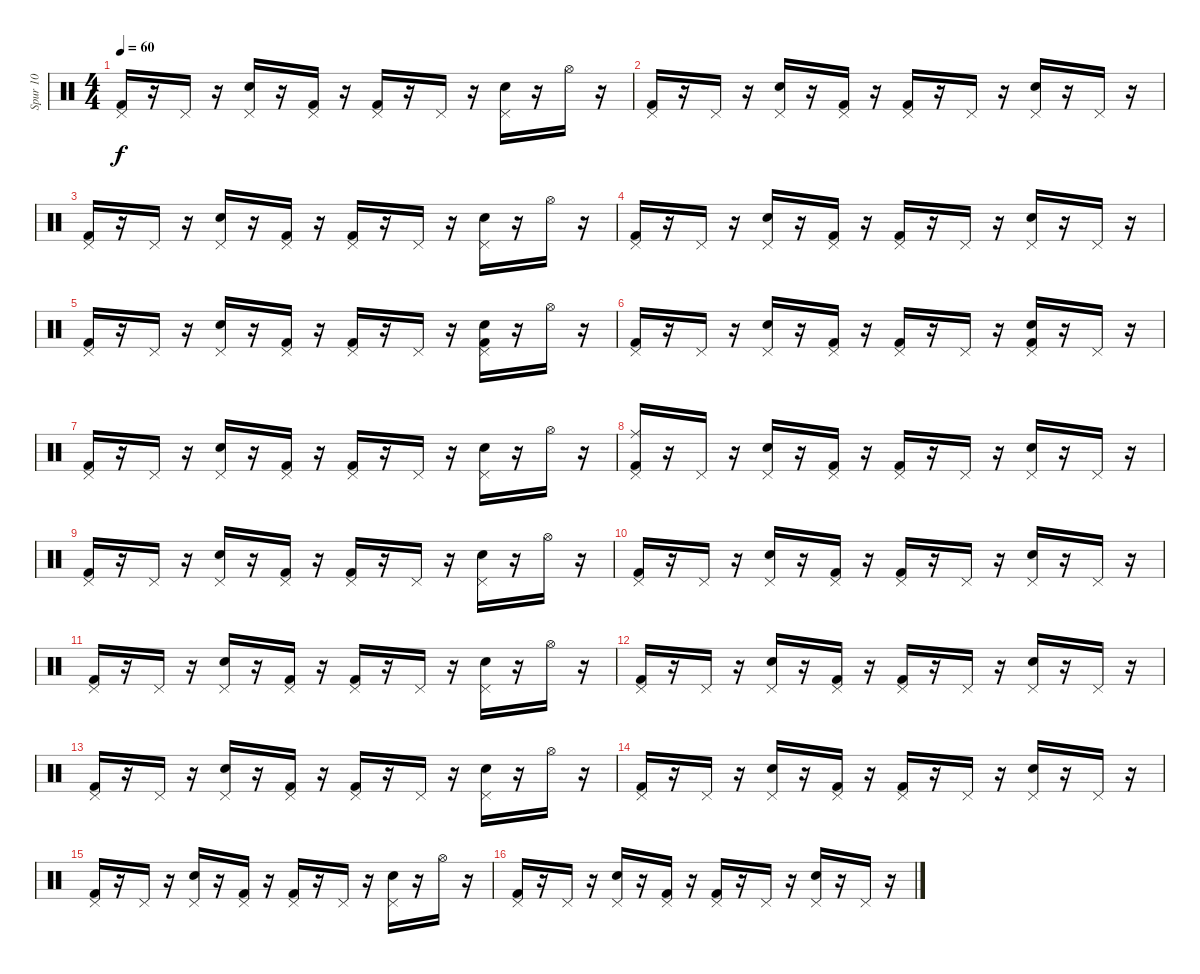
\track ("Spur 10" "Spur 10") {instrument percussion}
\staff {score}
\articulation defaults
\ts (4 4)
\tempo 60
\clef neutral
\ks c
("Kick (hit) 2" "Pedal Hi-Hat (hit)").16{dy f} r.16 "Pedal Hi-Hat (hit)".16 r.16 ("Snare (hit) 2" "Pedal Hi-Hat (hit)").16 r.16 ("Pedal Hi-Hat (hit)" "Kick (hit) 2").16 r.16 ("Pedal Hi-Hat (hit)" "Kick (hit) 2").16 r.16 "Pedal Hi-Hat (hit)".16 r.16 ("Snare (hit) 2" "Pedal Hi-Hat (hit)").16 r.16 "Hi-Hat (open)".16 r.16 |
("Pedal Hi-Hat (hit)" "Kick (hit) 2").16 r.16 "Pedal Hi-Hat (hit)".16 r.16 ("Pedal Hi-Hat (hit)" "Snare (hit) 2").16 r.16 ("Kick (hit) 2" "Pedal Hi-Hat (hit)").16 r.16 ("Kick (hit) 2" "Pedal Hi-Hat (hit)").16 r.16 "Pedal Hi-Hat (hit)".16 r.16 ("Snare (hit) 2" "Pedal Hi-Hat (hit)").16 r.16 "Pedal Hi-Hat (hit)".16 r.16 |
("Kick (hit) 2" "Pedal Hi-Hat (hit)").16 r.16 "Pedal Hi-Hat (hit)".16 r.16 ("Snare (hit) 2" "Pedal Hi-Hat (hit)").16 r.16 ("Pedal Hi-Hat (hit)" "Kick (hit) 2").16 r.16 ("Kick (hit) 2" "Pedal Hi-Hat (hit)").16 r.16 "Pedal Hi-Hat (hit)".16 r.16 ("Snare (hit) 2" "Pedal Hi-Hat (hit)").16 r.16 "Hi-Hat (open)".16 r.16 |
("Pedal Hi-Hat (hit)" "Kick (hit) 2").16 r.16 "Pedal Hi-Hat (hit)".16 r.16 ("Pedal Hi-Hat (hit)" "Snare (hit) 2").16 r.16 ("Kick (hit) 2" "Pedal Hi-Hat (hit)").16 r.16 ("Pedal Hi-Hat (hit)" "Kick (hit) 2").16 r.16 "Pedal Hi-Hat (hit)".16 r.16 ("Pedal Hi-Hat (hit)" "Snare (hit) 2").16 r.16 "Pedal Hi-Hat (hit)".16 r.16 |
("Pedal Hi-Hat (hit)" "Kick (hit) 2").16 r.16 "Pedal Hi-Hat (hit)".16 r.16 ("Snare (hit) 2" "Pedal Hi-Hat (hit)").16 r.16 ("Kick (hit) 2" "Pedal Hi-Hat (hit)").16 r.16 ("Pedal Hi-Hat (hit)" "Kick (hit) 2").16 r.16 "Pedal Hi-Hat (hit)".16 r.16 ("Kick (hit) 2" "Snare (hit) 2" "Pedal Hi-Hat (hit)").16 r.16 "Hi-Hat (open)".16 r.16 |
("Pedal Hi-Hat (hit)" "Kick (hit) 2").16 r.16 "Pedal Hi-Hat (hit)".16 r.16 ("Snare (hit) 2" "Pedal Hi-Hat (hit)").16 r.16 ("Pedal Hi-Hat (hit)" "Kick (hit) 2").16 r.16 ("Pedal Hi-Hat (hit)" "Kick (hit) 2").16 r.16 "Pedal Hi-Hat (hit)".16 r.16 ("Snare (hit) 2" "Pedal Hi-Hat (hit)" "Kick (hit) 2").16 r.16 "Pedal Hi-Hat (hit)".16 r.16 |
("Kick (hit) 2" "Pedal Hi-Hat (hit)").16 r.16 "Pedal Hi-Hat (hit)".16 r.16 ("Pedal Hi-Hat (hit)" "Snare (hit) 2").16 r.16 ("Pedal Hi-Hat (hit)" "Kick (hit) 2").16 r.16 ("Kick (hit) 2" "Pedal Hi-Hat (hit)").16 r.16 "Pedal Hi-Hat (hit)".16 r.16 ("Pedal Hi-Hat (hit)" "Snare (hit) 2").16 r.16 "Hi-Hat (open)".16 r.16 |
("Ride (middle)" "Kick (hit) 2" "Pedal Hi-Hat (hit)").16 r.16 "Pedal Hi-Hat (hit)".16 r.16 ("Snare (hit) 2" "Pedal Hi-Hat (hit)").16 r.16 ("Pedal Hi-Hat (hit)" "Kick (hit) 2").16 r.16 ("Kick (hit) 2" "Pedal Hi-Hat (hit)").16 r.16 "Pedal Hi-Hat (hit)".16 r.16 ("Snare (hit) 2" "Pedal Hi-Hat (hit)").16 r.16 "Pedal Hi-Hat (hit)".16 r.16 |
("Pedal Hi-Hat (hit)" "Kick (hit) 2").16 r.16 "Pedal Hi-Hat (hit)".16 r.16 ("Pedal Hi-Hat (hit)" "Snare (hit) 2").16 r.16 ("Pedal Hi-Hat (hit)" "Kick (hit) 2").16 r.16 ("Pedal Hi-Hat (hit)" "Kick (hit) 2").16 r.16 "Pedal Hi-Hat (hit)".16 r.16 ("Pedal Hi-Hat (hit)" "Snare (hit) 2").16 r.16 "Hi-Hat (open)".16 r.16 |
("Pedal Hi-Hat (hit)" "Kick (hit) 2").16 r.16 "Pedal Hi-Hat (hit)".16 r.16 ("Snare (hit) 2" "Pedal Hi-Hat (hit)").16 r.16 ("Kick (hit) 2" "Pedal Hi-Hat (hit)").16 r.16 ("Pedal Hi-Hat (hit)" "Kick (hit) 2").16 r.16 "Pedal Hi-Hat (hit)".16 r.16 ("Snare (hit) 2" "Pedal Hi-Hat (hit)").16 r.16 "Pedal Hi-Hat (hit)".16 r.16 |
("Pedal Hi-Hat (hit)" "Kick (hit) 2").16 r.16 "Pedal Hi-Hat (hit)".16 r.16 ("Pedal Hi-Hat (hit)" "Snare (hit) 2").16 r.16 ("Kick (hit) 2" "Pedal Hi-Hat (hit)").16 r.16 ("Kick (hit) 2" "Pedal Hi-Hat (hit)").16 r.16 "Pedal Hi-Hat (hit)".16 r.16 ("Snare (hit) 2" "Pedal Hi-Hat (hit)").16 r.16 "Hi-Hat (open)".16 r.16 |
("Pedal Hi-Hat (hit)" "Kick (hit) 2").16 r.16 "Pedal Hi-Hat (hit)".16 r.16 ("Snare (hit) 2" "Pedal Hi-Hat (hit)").16 r.16 ("Pedal Hi-Hat (hit)" "Kick (hit) 2").16 r.16 ("Pedal Hi-Hat (hit)" "Kick (hit) 2").16 r.16 "Pedal Hi-Hat (hit)".16 r.16 ("Pedal Hi-Hat (hit)" "Snare (hit) 2").16 r.16 "Pedal Hi-Hat (hit)".16 r.16 |
("Pedal Hi-Hat (hit)" "Kick (hit) 2").16 r.16 "Pedal Hi-Hat (hit)".16 r.16 ("Pedal Hi-Hat (hit)" "Snare (hit) 2").16 r.16 ("Kick (hit) 2" "Pedal Hi-Hat (hit)").16 r.16 ("Pedal Hi-Hat (hit)" "Kick (hit) 2").16 r.16 "Pedal Hi-Hat (hit)".16 r.16 ("Pedal Hi-Hat (hit)" "Snare (hit) 2").16 r.16 "Hi-Hat (open)".16 r.16 |
("Pedal Hi-Hat (hit)" "Kick (hit) 2").16 r.16 "Pedal Hi-Hat (hit)".16 r.16 ("Snare (hit) 2" "Pedal Hi-Hat (hit)").16 r.16 ("Kick (hit) 2" "Pedal Hi-Hat (hit)").16 r.16 ("Pedal Hi-Hat (hit)" "Kick (hit) 2").16 r.16 "Pedal Hi-Hat (hit)".16 r.16 ("Snare (hit) 2" "Pedal Hi-Hat (hit)").16 r.16 "Pedal Hi-Hat (hit)".16 r.16 |
("Kick (hit) 2" "Pedal Hi-Hat (hit)").16 r.16 "Pedal Hi-Hat (hit)".16 r.16 ("Snare (hit) 2" "Pedal Hi-Hat (hit)").16 r.16 ("Pedal Hi-Hat (hit)" "Kick (hit) 2").16 r.16 ("Kick (hit) 2" "Pedal Hi-Hat (hit)").16 r.16 "Pedal Hi-Hat (hit)".16 r.16 ("Snare (hit) 2" "Pedal Hi-Hat (hit)").16 r.16 "Hi-Hat (open)".16 r.16 |
("Pedal Hi-Hat (hit)" "Kick (hit) 2").16 r.16 "Pedal Hi-Hat (hit)".16 r.16 ("Pedal Hi-Hat (hit)" "Snare (hit) 2").16 r.16 ("Pedal Hi-Hat (hit)" "Kick (hit) 2").16 r.16 ("Pedal Hi-Hat (hit)" "Kick (hit) 2").16 r.16 "Pedal Hi-Hat (hit)".16 r.16 ("Pedal Hi-Hat (hit)" "Snare (hit) 2").16 r.16 "Pedal Hi-Hat (hit)".16 r.16
